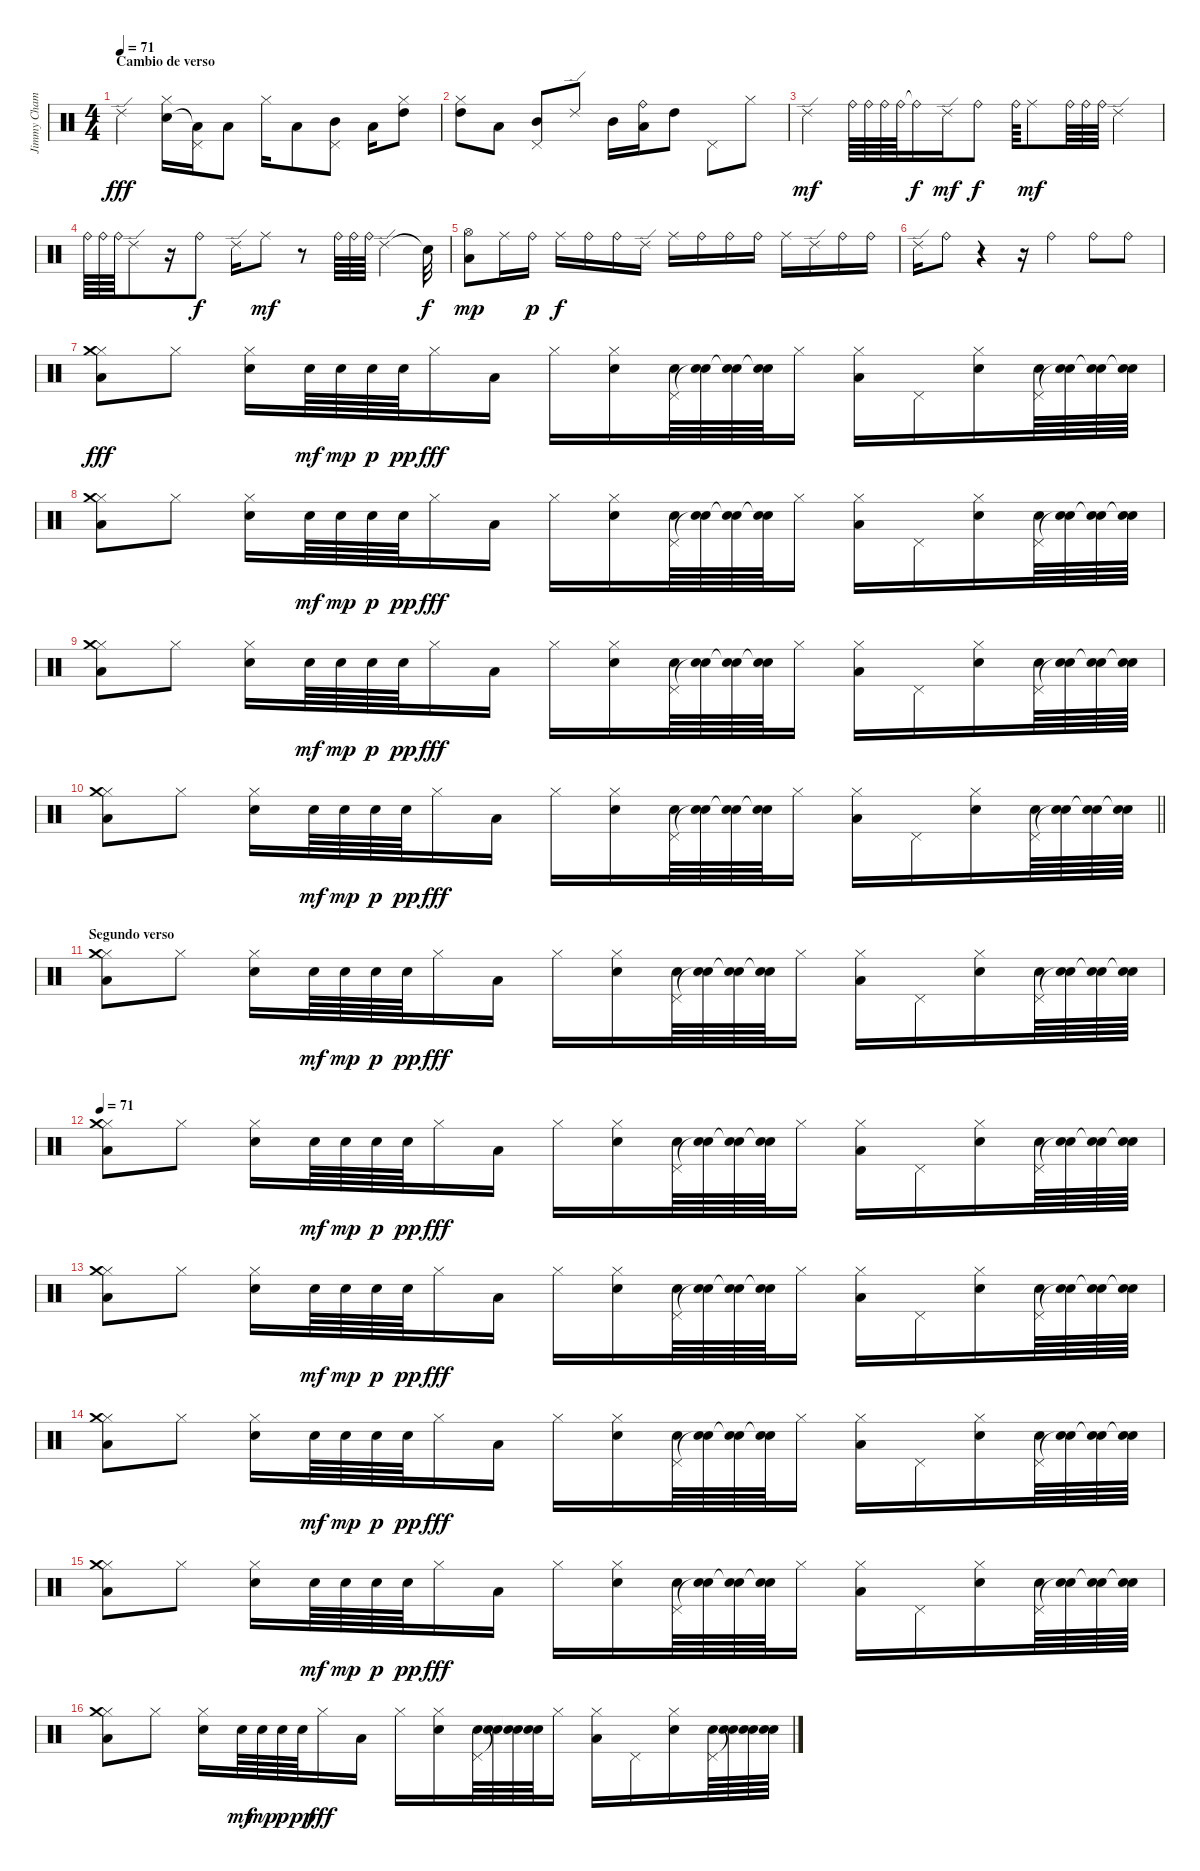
\track ("Jimmy Chamberlin" "Jimmy Cham") {instrument percussion}
\staff {score}
\articulation defaults
\ts (4 4)
\section ("" "Cambio de verso")
\tempo 71
\clef neutral
\ks c "Ride (edge) 2".4{dy fff}
("Snare (hit) 2" "Hi-Hat (closed)").16 ("Low Tom (hit)"{t} "Pedal Hi-Hat (hit)").16 "Low Tom (hit)".8 "Hi-Hat (closed)".16 "Low Tom (hit)".8 ("Mid Tom (hit)" "Pedal Hi-Hat (hit)").8 "Low Tom (hit)".16 ("High Tom (hit)" "Hi-Hat (closed)").8 |
("High Tom (hit)" "Hi-Hat (closed)").8 "Low Tom (hit)".8 ("Mid Tom (hit)" "Pedal Hi-Hat (hit)").8 "Ride (edge) 2".8 "Mid Tom (hit)".16 ("Low Tom (hit)" "Ride (bell)").16 "High Tom (hit)".8 "Pedal Hi-Hat (hit)".8 "Hi-Hat (closed)".8 |
"Ride (edge) 2".4{dy mf} "Ride (bell)".64 "Ride (bell)".64 "Ride (bell)".64 "Ride (bell)".64 "Ride (bell)"{t}.16{dy f} "Ride (edge) 2".16{dy mf} "Ride (bell)".8{dy f} "Ride (bell)".64 "Ride (middle)".8{dy mf} "Ride (bell)".64 "Ride (bell)".64 "Ride (bell)".64 "Ride (edge) 2".4 |
"Ride (bell)".64 "Ride (bell)".64 "Ride (bell)".64 "Ride (edge) 2".8 r.16 "Ride (bell)".8{dy f} "Ride (edge) 2".16 "Ride (middle)".8{dy mf} r.8 "Ride (bell)".64 "Ride (bell)".64 "Ride (bell)".64 "Ride (edge) 2".4 "Snare (hit)"{t}.32{dy f} |
("Low Tom (hit)" "Hi-Hat (open)").8{dy mp} "Ride (middle)".16 "Ride (bell)".16{dy p} "Ride (middle)".16{dy f} "Ride (bell)".16 "Ride (bell)".16 "Ride (edge) 2".16 "Ride (middle)".16 "Ride (bell)".16 "Ride (bell)".16 "Ride (bell)".16 "Ride (middle)".16 "Ride (edge) 2".16 "Ride (bell)".16 "Ride (bell)".16 |
"Ride (edge) 2".16 "Ride (bell)".8 r.4 r.16 "Ride (bell)".4 "Ride (bell)".8 "Ride (bell)".8 |
("Low Tom (hit)" "Hi-Hat (closed)" "Crash medium (hit)").8{dy fff} "Hi-Hat (closed)".8 ("Hi-Hat (closed)" "Snare (hit) 2").16 "Snare (hit) 2".64{dy mf} "Snare (hit) 2".64{dy mp} "Snare (hit) 2".64{dy p} "Snare (hit) 2".64{dy pp} "Hi-Hat (closed)".16{dy fff} "Low Tom (hit)".16 "Hi-Hat (closed)".16 ("Snare (hit) 2" "Hi-Hat (closed)").16 ("Snare (hit) 2" "Pedal Hi-Hat (hit)").64 ("Snare (hit) 2" "Snare (hit)"{t}).64 ("Snare (hit) 2" "Snare (hit)"{t}).64 ("Snare (hit) 2" "Snare (hit)"{t}).64 "Hi-Hat (closed)".16 ("Low Tom (hit)" "Hi-Hat (closed)").16 "Pedal Hi-Hat (hit)".16 ("Snare (hit) 2" "Hi-Hat (closed)").16 ("Snare (hit) 2" "Pedal Hi-Hat (hit)").64 ("Snare (hit) 2" "Snare (hit)"{t}).64 ("Snare (hit) 2" "Snare (hit)"{t}).64 ("Snare (hit) 2" "Snare (hit)"{t}).64 |
("Low Tom (hit)" "Hi-Hat (closed)" "Crash medium (hit)").8 "Hi-Hat (closed)".8 ("Hi-Hat (closed)" "Snare (hit) 2").16 "Snare (hit) 2".64{dy mf} "Snare (hit) 2".64{dy mp} "Snare (hit) 2".64{dy p} "Snare (hit) 2".64{dy pp} "Hi-Hat (closed)".16{dy fff} "Low Tom (hit)".16 "Hi-Hat (closed)".16 ("Snare (hit) 2" "Hi-Hat (closed)").16 ("Snare (hit) 2" "Pedal Hi-Hat (hit)").64 ("Snare (hit) 2" "Snare (hit)"{t}).64 ("Snare (hit) 2" "Snare (hit)"{t}).64 ("Snare (hit) 2" "Snare (hit)"{t}).64 "Hi-Hat (closed)".16 ("Low Tom (hit)" "Hi-Hat (closed)").16 "Pedal Hi-Hat (hit)".16 ("Snare (hit) 2" "Hi-Hat (closed)").16 ("Snare (hit) 2" "Pedal Hi-Hat (hit)").64 ("Snare (hit) 2" "Snare (hit)"{t}).64 ("Snare (hit) 2" "Snare (hit)"{t}).64 ("Snare (hit) 2" "Snare (hit)"{t}).64 |
("Low Tom (hit)" "Hi-Hat (closed)" "Crash medium (hit)").8 "Hi-Hat (closed)".8 ("Hi-Hat (closed)" "Snare (hit) 2").16 "Snare (hit) 2".64{dy mf} "Snare (hit) 2".64{dy mp} "Snare (hit) 2".64{dy p} "Snare (hit) 2".64{dy pp} "Hi-Hat (closed)".16{dy fff} "Low Tom (hit)".16 "Hi-Hat (closed)".16 ("Snare (hit) 2" "Hi-Hat (closed)").16 ("Snare (hit) 2" "Pedal Hi-Hat (hit)").64 ("Snare (hit) 2" "Snare (hit)"{t}).64 ("Snare (hit) 2" "Snare (hit)"{t}).64 ("Snare (hit) 2" "Snare (hit)"{t}).64 "Hi-Hat (closed)".16 ("Low Tom (hit)" "Hi-Hat (closed)").16 "Pedal Hi-Hat (hit)".16 ("Snare (hit) 2" "Hi-Hat (closed)").16 ("Snare (hit) 2" "Pedal Hi-Hat (hit)").64 ("Snare (hit) 2" "Snare (hit)"{t}).64 ("Snare (hit) 2" "Snare (hit)"{t}).64 ("Snare (hit) 2" "Snare (hit)"{t}).64 |
\barLineRight lightlight
("Low Tom (hit)" "Hi-Hat (closed)" "Crash medium (hit)").8 "Hi-Hat (closed)".8 ("Hi-Hat (closed)" "Snare (hit) 2").16 "Snare (hit) 2".64{dy mf} "Snare (hit) 2".64{dy mp} "Snare (hit) 2".64{dy p} "Snare (hit) 2".64{dy pp} "Hi-Hat (closed)".16{dy fff} "Low Tom (hit)".16 "Hi-Hat (closed)".16 ("Snare (hit) 2" "Hi-Hat (closed)").16 ("Snare (hit) 2" "Pedal Hi-Hat (hit)").64 ("Snare (hit) 2" "Snare (hit)"{t}).64 ("Snare (hit) 2" "Snare (hit)"{t}).64 ("Snare (hit) 2" "Snare (hit)"{t}).64 "Hi-Hat (closed)".16 ("Low Tom (hit)" "Hi-Hat (closed)").16 "Pedal Hi-Hat (hit)".16 ("Snare (hit) 2" "Hi-Hat (closed)").16 ("Snare (hit) 2" "Pedal Hi-Hat (hit)").64 ("Snare (hit) 2" "Snare (hit)"{t}).64 ("Snare (hit) 2" "Snare (hit)"{t}).64 ("Snare (hit) 2" "Snare (hit)"{t}).64 |
\section ("" "Segundo verso")
("Low Tom (hit)" "Hi-Hat (closed)" "Crash medium (hit)").8 "Hi-Hat (closed)".8 ("Hi-Hat (closed)" "Snare (hit) 2").16 "Snare (hit) 2".64{dy mf} "Snare (hit) 2".64{dy mp} "Snare (hit) 2".64{dy p} "Snare (hit) 2".64{dy pp} "Hi-Hat (closed)".16{dy fff} "Low Tom (hit)".16 "Hi-Hat (closed)".16 ("Snare (hit) 2" "Hi-Hat (closed)").16 ("Snare (hit) 2" "Pedal Hi-Hat (hit)").64 ("Snare (hit) 2" "Snare (hit)"{t}).64 ("Snare (hit) 2" "Snare (hit)"{t}).64 ("Snare (hit) 2" "Snare (hit)"{t}).64 "Hi-Hat (closed)".16 ("Low Tom (hit)" "Hi-Hat (closed)").16 "Pedal Hi-Hat (hit)".16 ("Snare (hit) 2" "Hi-Hat (closed)").16 ("Snare (hit) 2" "Pedal Hi-Hat (hit)").64 ("Snare (hit) 2" "Snare (hit)"{t}).64 ("Snare (hit) 2" "Snare (hit)"{t}).64 ("Snare (hit) 2" "Snare (hit)"{t}).64 |
\tempo 71
("Low Tom (hit)" "Hi-Hat (closed)" "Crash medium (hit)").8 "Hi-Hat (closed)".8 ("Hi-Hat (closed)" "Snare (hit) 2").16 "Snare (hit) 2".64{dy mf} "Snare (hit) 2".64{dy mp} "Snare (hit) 2".64{dy p} "Snare (hit) 2".64{dy pp} "Hi-Hat (closed)".16{dy fff} "Low Tom (hit)".16 "Hi-Hat (closed)".16 ("Snare (hit) 2" "Hi-Hat (closed)").16 ("Snare (hit) 2" "Pedal Hi-Hat (hit)").64 ("Snare (hit) 2" "Snare (hit)"{t}).64 ("Snare (hit) 2" "Snare (hit)"{t}).64 ("Snare (hit) 2" "Snare (hit)"{t}).64 "Hi-Hat (closed)".16 ("Low Tom (hit)" "Hi-Hat (closed)").16 "Pedal Hi-Hat (hit)".16 ("Snare (hit) 2" "Hi-Hat (closed)").16 ("Snare (hit) 2" "Pedal Hi-Hat (hit)").64 ("Snare (hit) 2" "Snare (hit)"{t}).64 ("Snare (hit) 2" "Snare (hit)"{t}).64 ("Snare (hit) 2" "Snare (hit)"{t}).64 |
("Low Tom (hit)" "Hi-Hat (closed)" "Crash medium (hit)").8 "Hi-Hat (closed)".8 ("Hi-Hat (closed)" "Snare (hit) 2").16 "Snare (hit) 2".64{dy mf} "Snare (hit) 2".64{dy mp} "Snare (hit) 2".64{dy p} "Snare (hit) 2".64{dy pp} "Hi-Hat (closed)".16{dy fff} "Low Tom (hit)".16 "Hi-Hat (closed)".16 ("Snare (hit) 2" "Hi-Hat (closed)").16 ("Snare (hit) 2" "Pedal Hi-Hat (hit)").64 ("Snare (hit) 2" "Snare (hit)"{t}).64 ("Snare (hit) 2" "Snare (hit)"{t}).64 ("Snare (hit) 2" "Snare (hit)"{t}).64 "Hi-Hat (closed)".16 ("Low Tom (hit)" "Hi-Hat (closed)").16 "Pedal Hi-Hat (hit)".16 ("Snare (hit) 2" "Hi-Hat (closed)").16 ("Snare (hit) 2" "Pedal Hi-Hat (hit)").64 ("Snare (hit) 2" "Snare (hit)"{t}).64 ("Snare (hit) 2" "Snare (hit)"{t}).64 ("Snare (hit) 2" "Snare (hit)"{t}).64 |
("Low Tom (hit)" "Hi-Hat (closed)" "Crash medium (hit)").8 "Hi-Hat (closed)".8 ("Hi-Hat (closed)" "Snare (hit) 2").16 "Snare (hit) 2".64{dy mf} "Snare (hit) 2".64{dy mp} "Snare (hit) 2".64{dy p} "Snare (hit) 2".64{dy pp} "Hi-Hat (closed)".16{dy fff} "Low Tom (hit)".16 "Hi-Hat (closed)".16 ("Snare (hit) 2" "Hi-Hat (closed)").16 ("Snare (hit) 2" "Pedal Hi-Hat (hit)").64 ("Snare (hit) 2" "Snare (hit)"{t}).64 ("Snare (hit) 2" "Snare (hit)"{t}).64 ("Snare (hit) 2" "Snare (hit)"{t}).64 "Hi-Hat (closed)".16 ("Low Tom (hit)" "Hi-Hat (closed)").16 "Pedal Hi-Hat (hit)".16 ("Snare (hit) 2" "Hi-Hat (closed)").16 ("Snare (hit) 2" "Pedal Hi-Hat (hit)").64 ("Snare (hit) 2" "Snare (hit)"{t}).64 ("Snare (hit) 2" "Snare (hit)"{t}).64 ("Snare (hit) 2" "Snare (hit)"{t}).64 |
("Low Tom (hit)" "Hi-Hat (closed)" "Crash medium (hit)").8 "Hi-Hat (closed)".8 ("Hi-Hat (closed)" "Snare (hit) 2").16 "Snare (hit) 2".64{dy mf} "Snare (hit) 2".64{dy mp} "Snare (hit) 2".64{dy p} "Snare (hit) 2".64{dy pp} "Hi-Hat (closed)".16{dy fff} "Low Tom (hit)".16 "Hi-Hat (closed)".16 ("Snare (hit) 2" "Hi-Hat (closed)").16 ("Snare (hit) 2" "Pedal Hi-Hat (hit)").64 ("Snare (hit) 2" "Snare (hit)"{t}).64 ("Snare (hit) 2" "Snare (hit)"{t}).64 ("Snare (hit) 2" "Snare (hit)"{t}).64 "Hi-Hat (closed)".16 ("Low Tom (hit)" "Hi-Hat (closed)").16 "Pedal Hi-Hat (hit)".16 ("Snare (hit) 2" "Hi-Hat (closed)").16 ("Snare (hit) 2" "Pedal Hi-Hat (hit)").64 ("Snare (hit) 2" "Snare (hit)"{t}).64 ("Snare (hit) 2" "Snare (hit)"{t}).64 ("Snare (hit) 2" "Snare (hit)"{t}).64 |
("Low Tom (hit)" "Hi-Hat (closed)" "Crash medium (hit)").8 "Hi-Hat (closed)".8 ("Hi-Hat (closed)" "Snare (hit) 2").16 "Snare (hit) 2".64{dy mf} "Snare (hit) 2".64{dy mp} "Snare (hit) 2".64{dy p} "Snare (hit) 2".64{dy pp} "Hi-Hat (closed)".16{dy fff} "Low Tom (hit)".16 "Hi-Hat (closed)".16 ("Snare (hit) 2" "Hi-Hat (closed)").16 ("Snare (hit) 2" "Pedal Hi-Hat (hit)").64 ("Snare (hit) 2" "Snare (hit)"{t}).64 ("Snare (hit) 2" "Snare (hit)"{t}).64 ("Snare (hit) 2" "Snare (hit)"{t}).64 "Hi-Hat (closed)".16 ("Low Tom (hit)" "Hi-Hat (closed)").16 "Pedal Hi-Hat (hit)".16 ("Snare (hit) 2" "Hi-Hat (closed)").16 ("Snare (hit) 2" "Pedal Hi-Hat (hit)").64 ("Snare (hit) 2" "Snare (hit)"{t}).64 ("Snare (hit) 2" "Snare (hit)"{t}).64 ("Snare (hit) 2" "Snare (hit)"{t}).64
